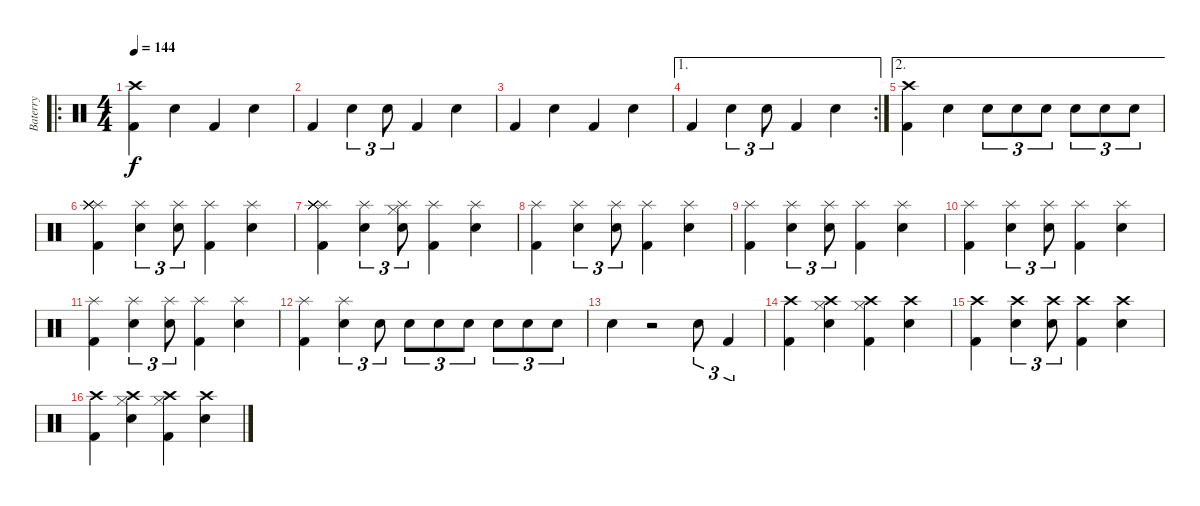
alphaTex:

\track ("Baterry" "Baterry") {instrument percussion}
\staff {score}
\articulation defaults
\ro
\ts (4 4)
\tempo 144
\clef neutral
\ks c
("Crash high (hit)" "Kick (hit) 2").4{dy f} "Electric Snare (hit)".4 "Kick (hit) 2".4 "Electric Snare (hit)".4 |
"Kick (hit) 2".4 "Electric Snare (hit)".4{tu (3 2)} "Electric Snare (hit)".8{tu (3 2)} "Kick (hit) 2".4 "Electric Snare (hit)".4 |
"Kick (hit) 2".4 "Electric Snare (hit)".4 "Kick (hit) 2".4 "Electric Snare (hit)".4 |
\ae 1
\rc 2 "Kick (hit) 2".4 "Electric Snare (hit)".4{tu (3 2)} "Electric Snare (hit)".8{tu (3 2)} "Kick (hit) 2".4 "Electric Snare (hit)".4
|
\ae 2
("Crash high (hit)" "Kick (hit) 2").4 "Electric Snare (hit)".4 "Electric Snare (hit)".8{tu (3 2)} "Electric Snare (hit)".8{tu (3 2)} "Electric Snare (hit)".8{tu (3 2)} "Electric Snare (hit)".8{tu (3 2)} "Electric Snare (hit)".8{tu (3 2)} "Electric Snare (hit)".8{tu (3 2)} |
("Splash (hit)" "Splash (hit)" "Kick (hit) 2" "Splash (hit)" "Splash (hit)" "Splash (hit)").4 ("Electric Snare (hit)" "Splash (hit)").4{tu (3 2)} ("Electric Snare (hit)" "Splash (hit)").8{tu (3 2)} ("Kick (hit) 2" "Splash (hit)").4 ("Electric Snare (hit)" "Splash (hit)").4 |
("Splash (hit)" "Splash (hit)" "Kick (hit) 2" "Splash (hit)" "Splash (hit)" "Splash (hit)").4 ("Splash (hit)" "Electric Snare (hit)").4{tu (3 2)} ("Hi-Hat (closed)" "Splash (hit)" "Electric Snare (hit)").8{tu (3 2)} ("Splash (hit)" "Kick (hit) 2").4 ("Splash (hit)" "Electric Snare (hit)").4 |
("Splash (hit)" "Kick (hit) 2").4 ("Splash (hit)" "Electric Snare (hit)").4{tu (3 2)} ("Splash (hit)" "Electric Snare (hit)").8{tu (3 2)} ("Splash (hit)" "Kick (hit) 2").4 ("Splash (hit)" "Electric Snare (hit)").4 |
("Splash (hit)" "Kick (hit) 2").4 ("Splash (hit)" "Electric Snare (hit)").4{tu (3 2)} ("Splash (hit)" "Electric Snare (hit)").8{tu (3 2)} ("Splash (hit)" "Kick (hit) 2").4 ("Splash (hit)" "Electric Snare (hit)").4 |
("Splash (hit)" "Kick (hit) 2").4 ("Splash (hit)" "Electric Snare (hit)").4{tu (3 2)} ("Splash (hit)" "Electric Snare (hit)").8{tu (3 2)} ("Splash (hit)" "Kick (hit) 2").4 ("Splash (hit)" "Electric Snare (hit)").4 |
("Splash (hit)" "Kick (hit) 2").4 ("Splash (hit)" "Electric Snare (hit)").4{tu (3 2)} ("Splash (hit)" "Electric Snare (hit)").8{tu (3 2)} ("Splash (hit)" "Kick (hit) 2").4 ("Splash (hit)" "Electric Snare (hit)").4 |
("Splash (hit)" "Kick (hit) 2").4 ("Splash (hit)" "Electric Snare (hit)").4{tu (3 2)} "Electric Snare (hit)".8{tu (3 2)} "Electric Snare (hit)".8{tu (3 2)} "Electric Snare (hit)".8{tu (3 2)} "Electric Snare (hit)".8{tu (3 2)} "Electric Snare (hit)".8{tu (3 2)} "Electric Snare (hit)".8{tu (3 2)} "Electric Snare (hit)".8{tu (3 2)} |
"Electric Snare (hit)".4 r.2 "Electric Snare (hit)".8{tu (3 2)} "Kick (hit) 2".4{tu (3 2)} |
("Crash high (hit)" "Kick (hit) 2").4 ("Hi-Hat (closed)" "Crash high (hit)" "Electric Snare (hit)").4 ("Hi-Hat (closed)" "Crash high (hit)" "Kick (hit) 2").4 ("Crash high (hit)" "Electric Snare (hit)").4 |
("Kick (hit) 2" "Crash high (hit)").4 ("Electric Snare (hit)" "Crash high (hit)").4{tu (3 2)} ("Electric Snare (hit)" "Crash high (hit)").8{tu (3 2)} ("Kick (hit) 2" "Crash high (hit)").4 ("Electric Snare (hit)" "Crash high (hit)").4 |
("Crash high (hit)" "Kick (hit) 2").4 ("Hi-Hat (closed)" "Crash high (hit)" "Electric Snare (hit)").4 ("Hi-Hat (closed)" "Crash high (hit)" "Kick (hit) 2").4 ("Crash high (hit)" "Electric Snare (hit)").4
